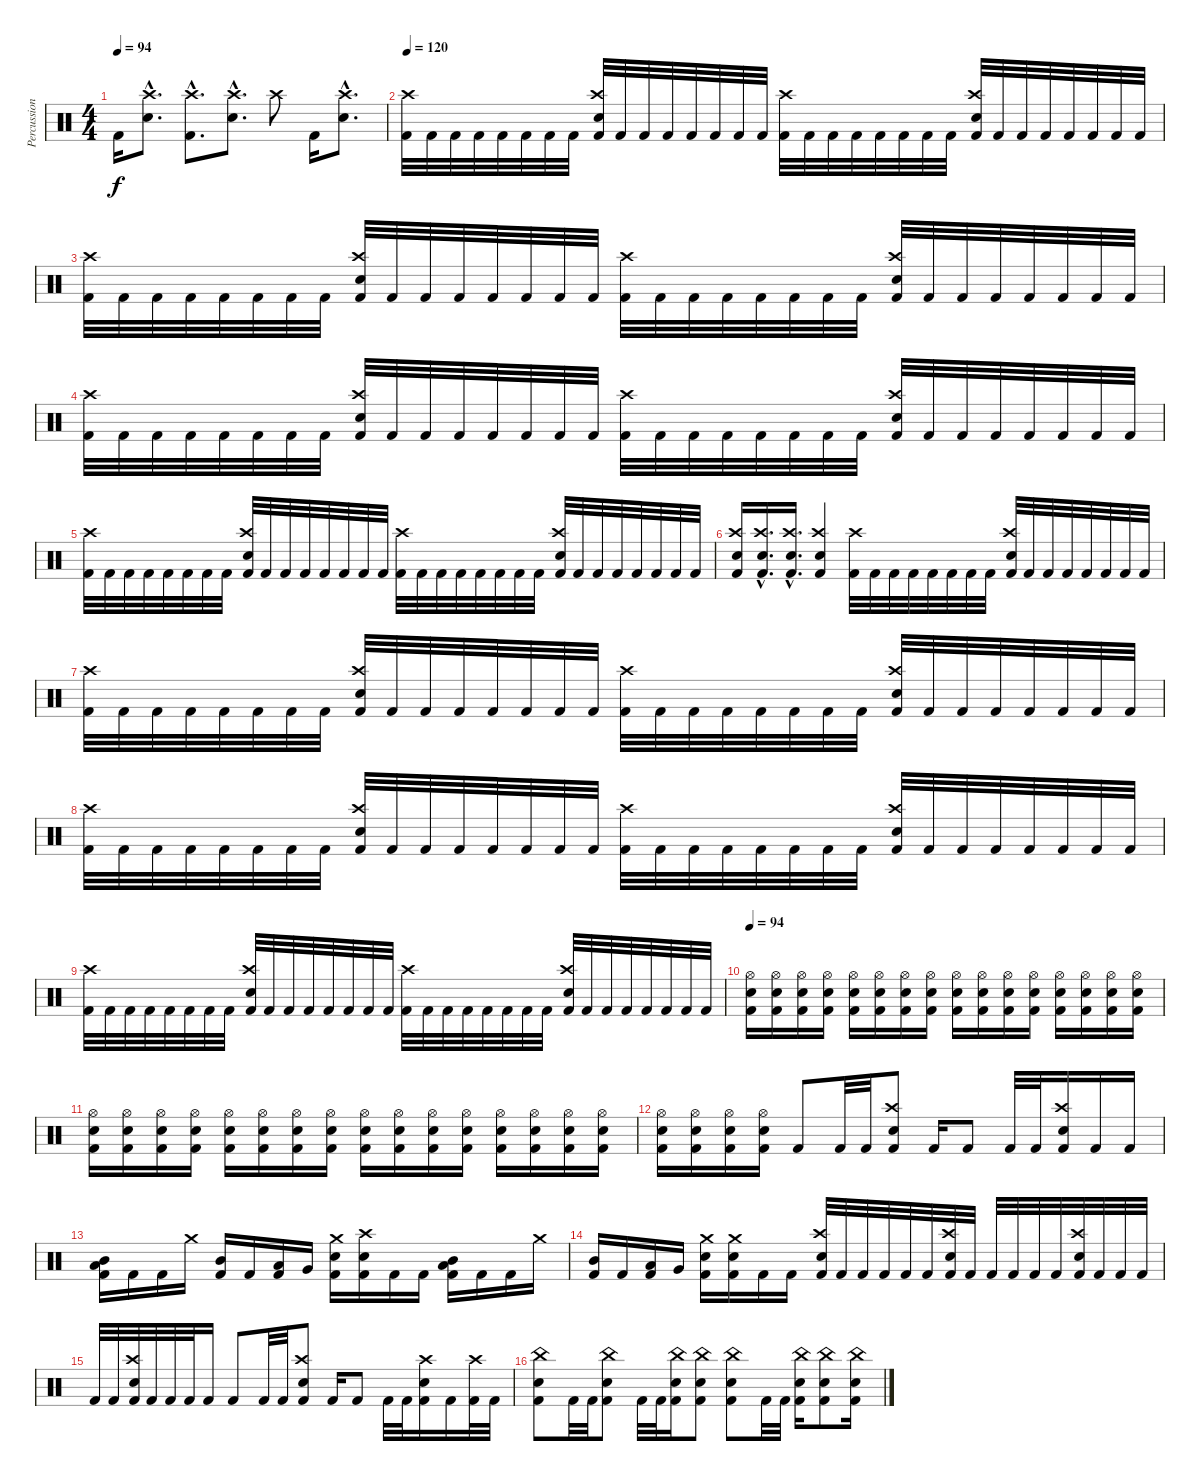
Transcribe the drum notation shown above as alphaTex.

\track ("Percussion" "Percussion") {instrument percussion}
\staff {score}
\articulation defaults
\ts (4 4)
\tempo 94
\clef neutral
\ks c "Kick (hit) 2".16{dy f}
("Crash high (hit)"{hac} "Electric Snare (hit)"{hac}).8{d} ("Crash high (hit)"{hac} "Kick (hit) 2"{hac}).8{d} ("Crash high (hit)"{hac} "Electric Snare (hit)"{hac}).8{d} "Crash high (hit)".8 "Kick (hit) 2".16 ("Crash high (hit)"{hac} "Electric Snare (hit)"{hac}).8{d} |
\tempo 120
("Crash high (hit)" "Kick (hit) 2").32 "Kick (hit) 2".32 "Kick (hit) 2".32 "Kick (hit) 2".32 "Kick (hit) 2".32 "Kick (hit) 2".32 "Kick (hit) 2".32 "Kick (hit) 2".32 ("Crash high (hit)" "Electric Snare (hit)" "Kick (hit) 2").32 "Kick (hit) 2".32 "Kick (hit) 2".32 "Kick (hit) 2".32 "Kick (hit) 2".32 "Kick (hit) 2".32 "Kick (hit) 2".32 "Kick (hit) 2".32 ("Crash high (hit)" "Kick (hit) 2").32 "Kick (hit) 2".32 "Kick (hit) 2".32 "Kick (hit) 2".32 "Kick (hit) 2".32 "Kick (hit) 2".32 "Kick (hit) 2".32 "Kick (hit) 2".32 ("Crash high (hit)" "Electric Snare (hit)" "Kick (hit) 2").32 "Kick (hit) 2".32 "Kick (hit) 2".32 "Kick (hit) 2".32 "Kick (hit) 2".32 "Kick (hit) 2".32 "Kick (hit) 2".32 "Kick (hit) 2".32 |
("Crash high (hit)" "Kick (hit) 2").32 "Kick (hit) 2".32 "Kick (hit) 2".32 "Kick (hit) 2".32 "Kick (hit) 2".32 "Kick (hit) 2".32 "Kick (hit) 2".32 "Kick (hit) 2".32 ("Crash high (hit)" "Electric Snare (hit)" "Kick (hit) 2").32 "Kick (hit) 2".32 "Kick (hit) 2".32 "Kick (hit) 2".32 "Kick (hit) 2".32 "Kick (hit) 2".32 "Kick (hit) 2".32 "Kick (hit) 2".32 ("Crash high (hit)" "Kick (hit) 2").32 "Kick (hit) 2".32 "Kick (hit) 2".32 "Kick (hit) 2".32 "Kick (hit) 2".32 "Kick (hit) 2".32 "Kick (hit) 2".32 "Kick (hit) 2".32 ("Crash high (hit)" "Electric Snare (hit)" "Kick (hit) 2").32 "Kick (hit) 2".32 "Kick (hit) 2".32 "Kick (hit) 2".32 "Kick (hit) 2".32 "Kick (hit) 2".32 "Kick (hit) 2".32 "Kick (hit) 2".32 |
("Crash high (hit)" "Kick (hit) 2").32 "Kick (hit) 2".32 "Kick (hit) 2".32 "Kick (hit) 2".32 "Kick (hit) 2".32 "Kick (hit) 2".32 "Kick (hit) 2".32 "Kick (hit) 2".32 ("Crash high (hit)" "Electric Snare (hit)" "Kick (hit) 2").32 "Kick (hit) 2".32 "Kick (hit) 2".32 "Kick (hit) 2".32 "Kick (hit) 2".32 "Kick (hit) 2".32 "Kick (hit) 2".32 "Kick (hit) 2".32 ("Crash high (hit)" "Kick (hit) 2").32 "Kick (hit) 2".32 "Kick (hit) 2".32 "Kick (hit) 2".32 "Kick (hit) 2".32 "Kick (hit) 2".32 "Kick (hit) 2".32 "Kick (hit) 2".32 ("Crash high (hit)" "Electric Snare (hit)" "Kick (hit) 2").32 "Kick (hit) 2".32 "Kick (hit) 2".32 "Kick (hit) 2".32 "Kick (hit) 2".32 "Kick (hit) 2".32 "Kick (hit) 2".32 "Kick (hit) 2".32 |
("Crash high (hit)" "Kick (hit) 2").32 "Kick (hit) 2".32 "Kick (hit) 2".32 "Kick (hit) 2".32 "Kick (hit) 2".32 "Kick (hit) 2".32 "Kick (hit) 2".32 "Kick (hit) 2".32 ("Crash high (hit)" "Electric Snare (hit)" "Kick (hit) 2").32 "Kick (hit) 2".32 "Kick (hit) 2".32 "Kick (hit) 2".32 "Kick (hit) 2".32 "Kick (hit) 2".32 "Kick (hit) 2".32 "Kick (hit) 2".32 ("Crash high (hit)" "Kick (hit) 2").32 "Kick (hit) 2".32 "Kick (hit) 2".32 "Kick (hit) 2".32 "Kick (hit) 2".32 "Kick (hit) 2".32 "Kick (hit) 2".32 "Kick (hit) 2".32 ("Crash high (hit)" "Electric Snare (hit)" "Kick (hit) 2").32 "Kick (hit) 2".32 "Kick (hit) 2".32 "Kick (hit) 2".32 "Kick (hit) 2".32 "Kick (hit) 2".32 "Kick (hit) 2".32 "Kick (hit) 2".32 |
("Crash high (hit)" "Electric Snare (hit)" "Kick (hit) 2").16 ("Crash high (hit)"{hac} "Electric Snare (hit)"{hac} "Kick (hit) 2"{hac}).16{d} ("Crash high (hit)"{hac} "Electric Snare (hit)"{hac} "Kick (hit) 2"{hac}).16{d} ("Crash high (hit)" "Electric Snare (hit)" "Kick (hit) 2").4 ("Crash high (hit)" "Kick (hit) 2").32 "Kick (hit) 2".32 "Kick (hit) 2".32 "Kick (hit) 2".32 "Kick (hit) 2".32 "Kick (hit) 2".32 "Kick (hit) 2".32 "Kick (hit) 2".32 ("Crash high (hit)" "Electric Snare (hit)" "Kick (hit) 2").32 "Kick (hit) 2".32 "Kick (hit) 2".32 "Kick (hit) 2".32 "Kick (hit) 2".32 "Kick (hit) 2".32 "Kick (hit) 2".32 "Kick (hit) 2".32 |
("Crash high (hit)" "Kick (hit) 2").32 "Kick (hit) 2".32 "Kick (hit) 2".32 "Kick (hit) 2".32 "Kick (hit) 2".32 "Kick (hit) 2".32 "Kick (hit) 2".32 "Kick (hit) 2".32 ("Crash high (hit)" "Electric Snare (hit)" "Kick (hit) 2").32 "Kick (hit) 2".32 "Kick (hit) 2".32 "Kick (hit) 2".32 "Kick (hit) 2".32 "Kick (hit) 2".32 "Kick (hit) 2".32 "Kick (hit) 2".32 ("Crash high (hit)" "Kick (hit) 2").32 "Kick (hit) 2".32 "Kick (hit) 2".32 "Kick (hit) 2".32 "Kick (hit) 2".32 "Kick (hit) 2".32 "Kick (hit) 2".32 "Kick (hit) 2".32 ("Crash high (hit)" "Electric Snare (hit)" "Kick (hit) 2").32 "Kick (hit) 2".32 "Kick (hit) 2".32 "Kick (hit) 2".32 "Kick (hit) 2".32 "Kick (hit) 2".32 "Kick (hit) 2".32 "Kick (hit) 2".32 |
("Crash high (hit)" "Kick (hit) 2").32 "Kick (hit) 2".32 "Kick (hit) 2".32 "Kick (hit) 2".32 "Kick (hit) 2".32 "Kick (hit) 2".32 "Kick (hit) 2".32 "Kick (hit) 2".32 ("Crash high (hit)" "Electric Snare (hit)" "Kick (hit) 2").32 "Kick (hit) 2".32 "Kick (hit) 2".32 "Kick (hit) 2".32 "Kick (hit) 2".32 "Kick (hit) 2".32 "Kick (hit) 2".32 "Kick (hit) 2".32 ("Crash high (hit)" "Kick (hit) 2").32 "Kick (hit) 2".32 "Kick (hit) 2".32 "Kick (hit) 2".32 "Kick (hit) 2".32 "Kick (hit) 2".32 "Kick (hit) 2".32 "Kick (hit) 2".32 ("Crash high (hit)" "Electric Snare (hit)" "Kick (hit) 2").32 "Kick (hit) 2".32 "Kick (hit) 2".32 "Kick (hit) 2".32 "Kick (hit) 2".32 "Kick (hit) 2".32 "Kick (hit) 2".32 "Kick (hit) 2".32 |
("Crash high (hit)" "Kick (hit) 2").32 "Kick (hit) 2".32 "Kick (hit) 2".32 "Kick (hit) 2".32 "Kick (hit) 2".32 "Kick (hit) 2".32 "Kick (hit) 2".32 "Kick (hit) 2".32 ("Crash high (hit)" "Electric Snare (hit)" "Kick (hit) 2").32 "Kick (hit) 2".32 "Kick (hit) 2".32 "Kick (hit) 2".32 "Kick (hit) 2".32 "Kick (hit) 2".32 "Kick (hit) 2".32 "Kick (hit) 2".32 ("Crash high (hit)" "Kick (hit) 2").32 "Kick (hit) 2".32 "Kick (hit) 2".32 "Kick (hit) 2".32 "Kick (hit) 2".32 "Kick (hit) 2".32 "Kick (hit) 2".32 "Kick (hit) 2".32 ("Crash high (hit)" "Electric Snare (hit)" "Kick (hit) 2").32 "Kick (hit) 2".32 "Kick (hit) 2".32 "Kick (hit) 2".32 "Kick (hit) 2".32 "Kick (hit) 2".32 "Kick (hit) 2".32 "Kick (hit) 2".32 |
\tempo 94
("Electric Snare (hit)" "Hi-Hat (open)" "Kick (hit) 2").16 ("Electric Snare (hit)" "Hi-Hat (open)" "Kick (hit) 2").16 ("Electric Snare (hit)" "Hi-Hat (open)" "Kick (hit) 2").16 ("Electric Snare (hit)" "Hi-Hat (open)" "Kick (hit) 2").16 ("Electric Snare (hit)" "Hi-Hat (open)" "Kick (hit) 2").16 ("Electric Snare (hit)" "Hi-Hat (open)" "Kick (hit) 2").16 ("Electric Snare (hit)" "Hi-Hat (open)" "Kick (hit) 2").16 ("Electric Snare (hit)" "Hi-Hat (open)" "Kick (hit) 2").16 ("Electric Snare (hit)" "Hi-Hat (open)" "Kick (hit) 2").16 ("Electric Snare (hit)" "Hi-Hat (open)" "Kick (hit) 2").16 ("Electric Snare (hit)" "Hi-Hat (open)" "Kick (hit) 2").16 ("Electric Snare (hit)" "Hi-Hat (open)" "Kick (hit) 2").16 ("Electric Snare (hit)" "Hi-Hat (open)" "Kick (hit) 2").16 ("Electric Snare (hit)" "Hi-Hat (open)" "Kick (hit) 2").16 ("Electric Snare (hit)" "Hi-Hat (open)" "Kick (hit) 2").16 ("Electric Snare (hit)" "Hi-Hat (open)" "Kick (hit) 2").16 |
("Electric Snare (hit)" "Hi-Hat (open)" "Kick (hit) 2").16 ("Electric Snare (hit)" "Hi-Hat (open)" "Kick (hit) 2").16 ("Electric Snare (hit)" "Hi-Hat (open)" "Kick (hit) 2").16 ("Electric Snare (hit)" "Hi-Hat (open)" "Kick (hit) 2").16 ("Electric Snare (hit)" "Hi-Hat (open)" "Kick (hit) 2").16 ("Electric Snare (hit)" "Hi-Hat (open)" "Kick (hit) 2").16 ("Electric Snare (hit)" "Hi-Hat (open)" "Kick (hit) 2").16 ("Electric Snare (hit)" "Hi-Hat (open)" "Kick (hit) 2").16 ("Electric Snare (hit)" "Hi-Hat (open)" "Kick (hit) 2").16 ("Electric Snare (hit)" "Hi-Hat (open)" "Kick (hit) 2").16 ("Electric Snare (hit)" "Hi-Hat (open)" "Kick (hit) 2").16 ("Electric Snare (hit)" "Hi-Hat (open)" "Kick (hit) 2").16 ("Electric Snare (hit)" "Hi-Hat (open)" "Kick (hit) 2").16 ("Electric Snare (hit)" "Hi-Hat (open)" "Kick (hit) 2").16 ("Electric Snare (hit)" "Hi-Hat (open)" "Kick (hit) 2").16 ("Electric Snare (hit)" "Hi-Hat (open)" "Kick (hit) 2").16 |
("Electric Snare (hit)" "Hi-Hat (open)" "Kick (hit) 2").16 ("Electric Snare (hit)" "Hi-Hat (open)" "Kick (hit) 2").16 ("Electric Snare (hit)" "Hi-Hat (open)" "Kick (hit) 2").16 ("Electric Snare (hit)" "Hi-Hat (open)" "Kick (hit) 2").16 "Kick (hit) 2".8 "Kick (hit) 2".32 "Kick (hit) 2".32 ("Crash high (hit)" "Electric Snare (hit)" "Kick (hit) 2").8 "Kick (hit) 2".16 "Kick (hit) 2".8 "Kick (hit) 2".32 "Kick (hit) 2".32 ("Crash high (hit)" "Electric Snare (hit)" "Kick (hit) 2").16 "Kick (hit) 2".16 "Kick (hit) 2".16 |
("Low Tom (hit)" "Mid Tom (hit)" "Kick (hit) 2").16 "Kick (hit) 2".16 "Kick (hit) 2".16 "Crash medium (hit)".16 ("Mid Tom (hit)" "Kick (hit) 2").16 "Kick (hit) 2".16 ("Low Tom (hit)" "Kick (hit) 2").16 "Very Low Tom (hit)".16 ("Crash medium (hit)" "Electric Snare (hit)" "Kick (hit) 2").16 ("Crash high (hit)" "Electric Snare (hit)" "Kick (hit) 2").16 "Kick (hit) 2".16 "Kick (hit) 2".16 ("Low Tom (hit)" "Mid Tom (hit)" "Kick (hit) 2").16 "Kick (hit) 2".16 "Kick (hit) 2".16 "Crash medium (hit)".16 |
("Mid Tom (hit)" "Kick (hit) 2").16 "Kick (hit) 2".16 ("Low Tom (hit)" "Kick (hit) 2").16 "Very Low Tom (hit)".16 ("Crash medium (hit)" "Electric Snare (hit)" "Kick (hit) 2").16 ("Crash medium (hit)" "Electric Snare (hit)" "Kick (hit) 2").16 "Kick (hit) 2".16 "Kick (hit) 2".16 ("Crash high (hit)" "Electric Snare (hit)" "Kick (hit) 2").32 "Kick (hit) 2".32 "Kick (hit) 2".32 "Kick (hit) 2".32 "Kick (hit) 2".32 "Kick (hit) 2".32 ("Crash high (hit)" "Electric Snare (hit)" "Kick (hit) 2").32 "Kick (hit) 2".32 "Kick (hit) 2".32 "Kick (hit) 2".32 "Kick (hit) 2".32 "Kick (hit) 2".32 ("Crash high (hit)" "Electric Snare (hit)" "Kick (hit) 2").32 "Kick (hit) 2".32 "Kick (hit) 2".32 "Kick (hit) 2".32 |
"Kick (hit) 2".32 "Kick (hit) 2".32 ("Crash high (hit)" "Electric Snare (hit)" "Kick (hit) 2").32 "Kick (hit) 2".32 "Kick (hit) 2".32 "Kick (hit) 2".32 "Kick (hit) 2".16 "Kick (hit) 2".8 "Kick (hit) 2".32 "Kick (hit) 2".32 ("Crash high (hit)" "Electric Snare (hit)" "Kick (hit) 2").8 "Kick (hit) 2".16 "Kick (hit) 2".8 "Kick (hit) 2".32 "Kick (hit) 2".32 ("Crash high (hit)" "Electric Snare (hit)" "Kick (hit) 2").16 "Kick (hit) 2".16 ("Crash high (hit)" "Kick (hit) 2").32 "Kick (hit) 2".32 |
("China (hit)" "Electric Snare (hit)" "Kick (hit) 2").8 "Kick (hit) 2".32 "Kick (hit) 2".32 ("China (hit)" "Electric Snare (hit)" "Kick (hit) 2").8 "Kick (hit) 2".32 "Kick (hit) 2".32 ("China (hit)" "Electric Snare (hit)" "Kick (hit) 2").16 ("China (hit)" "Electric Snare (hit)" "Kick (hit) 2").8 ("China (hit)" "Electric Snare (hit)" "Kick (hit) 2").8 "Kick (hit) 2".32 "Kick (hit) 2".32 ("China (hit)" "Electric Snare (hit)" "Kick (hit) 2").16 ("China (hit)" "Electric Snare (hit)" "Kick (hit) 2").8 ("China (hit)" "Electric Snare (hit)" "Kick (hit) 2").16
